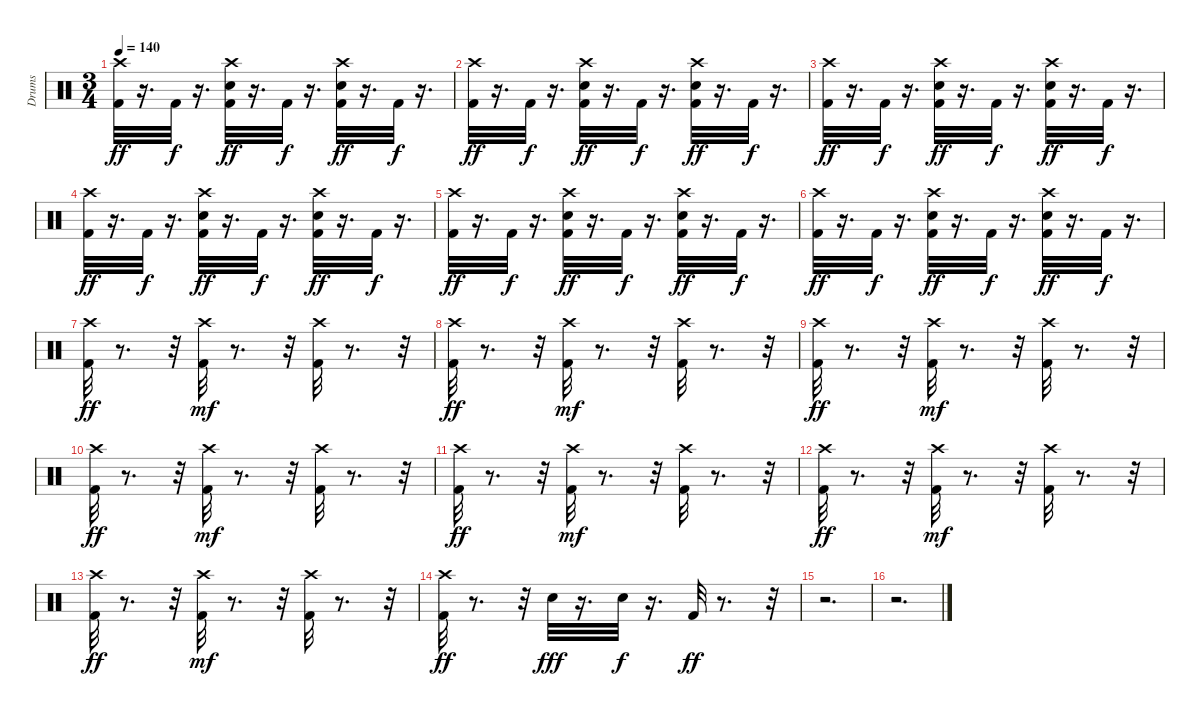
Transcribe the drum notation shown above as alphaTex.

\track ("Drums" "Drums") {instrument percussion}
\staff {score}
\articulation defaults
\ts (3 4)
\tempo 140
\clef neutral
\ks c
("Crash high (hit)" "Kick (hit) 2").32{dy ff} r.16{d} "Kick (hit) 2".32{dy f} r.16{d} ("Snare (hit) 2" "Crash high (hit)" "Kick (hit) 2").32{dy ff} r.16{d} "Kick (hit) 2".32{dy f} r.16{d} ("Snare (hit) 2" "Crash high (hit)" "Kick (hit) 2").32{dy ff} r.16{d} "Kick (hit) 2".32{dy f} r.16{d} |
("Crash high (hit)" "Kick (hit) 2").32{dy ff} r.16{d} "Kick (hit) 2".32{dy f} r.16{d} ("Snare (hit) 2" "Crash high (hit)" "Kick (hit) 2").32{dy ff} r.16{d} "Kick (hit) 2".32{dy f} r.16{d} ("Snare (hit) 2" "Crash high (hit)" "Kick (hit) 2").32{dy ff} r.16{d} "Kick (hit) 2".32{dy f} r.16{d} |
("Crash high (hit)" "Kick (hit) 2").32{dy ff} r.16{d} "Kick (hit) 2".32{dy f} r.16{d} ("Snare (hit) 2" "Crash high (hit)" "Kick (hit) 2").32{dy ff} r.16{d} "Kick (hit) 2".32{dy f} r.16{d} ("Snare (hit) 2" "Crash high (hit)" "Kick (hit) 2").32{dy ff} r.16{d} "Kick (hit) 2".32{dy f} r.16{d} |
("Crash high (hit)" "Kick (hit) 2").32{dy ff} r.16{d} "Kick (hit) 2".32{dy f} r.16{d} ("Snare (hit) 2" "Crash high (hit)" "Kick (hit) 2").32{dy ff} r.16{d} "Kick (hit) 2".32{dy f} r.16{d} ("Snare (hit) 2" "Crash high (hit)" "Kick (hit) 2").32{dy ff} r.16{d} "Kick (hit) 2".32{dy f} r.16{d} |
("Crash high (hit)" "Kick (hit) 2").32{dy ff} r.16{d} "Kick (hit) 2".32{dy f} r.16{d} ("Snare (hit) 2" "Crash high (hit)" "Kick (hit) 2").32{dy ff} r.16{d} "Kick (hit) 2".32{dy f} r.16{d} ("Snare (hit) 2" "Crash high (hit)" "Kick (hit) 2").32{dy ff} r.16{d} "Kick (hit) 2".32{dy f} r.16{d} |
("Crash high (hit)" "Kick (hit) 2").32{dy ff} r.16{d} "Kick (hit) 2".32{dy f} r.16{d} ("Snare (hit) 2" "Crash high (hit)" "Kick (hit) 2").32{dy ff} r.16{d} "Kick (hit) 2".32{dy f} r.16{d} ("Snare (hit) 2" "Crash high (hit)" "Kick (hit) 2").32{dy ff} r.16{d} "Kick (hit) 2".32{dy f} r.16{d} |
("Crash high (hit)" "Kick (hit) 2").32{dy ff} r.8{d} r.32 ("Crash high (hit)" "Kick (hit) 2").32{dy mf} r.8{d} r.32 ("Crash high (hit)" "Kick (hit) 2").32 r.8{d} r.32 |
("Crash high (hit)" "Kick (hit) 2").32{dy ff} r.8{d} r.32 ("Crash high (hit)" "Kick (hit) 2").32{dy mf} r.8{d} r.32 ("Crash high (hit)" "Kick (hit) 2").32 r.8{d} r.32 |
("Crash high (hit)" "Kick (hit) 2").32{dy ff} r.8{d} r.32 ("Crash high (hit)" "Kick (hit) 2").32{dy mf} r.8{d} r.32 ("Crash high (hit)" "Kick (hit) 2").32 r.8{d} r.32 |
("Crash high (hit)" "Kick (hit) 2").32{dy ff} r.8{d} r.32 ("Crash high (hit)" "Kick (hit) 2").32{dy mf} r.8{d} r.32 ("Crash high (hit)" "Kick (hit) 2").32 r.8{d} r.32 |
("Crash high (hit)" "Kick (hit) 2").32{dy ff} r.8{d} r.32 ("Crash high (hit)" "Kick (hit) 2").32{dy mf} r.8{d} r.32 ("Crash high (hit)" "Kick (hit) 2").32 r.8{d} r.32 |
("Crash high (hit)" "Kick (hit) 2").32{dy ff} r.8{d} r.32 ("Crash high (hit)" "Kick (hit) 2").32{dy mf} r.8{d} r.32 ("Crash high (hit)" "Kick (hit) 2").32 r.8{d} r.32 |
("Crash high (hit)" "Kick (hit) 2").32{dy ff} r.8{d} r.32 ("Crash high (hit)" "Kick (hit) 2").32{dy mf} r.8{d} r.32 ("Crash high (hit)" "Kick (hit) 2").32 r.8{d} r.32 |
("Crash high (hit)" "Kick (hit) 2").32{dy ff} r.8{d} r.32 "Snare (hit) 2".32{dy fff} r.16{d} "Snare (hit) 2".32{dy f} r.16{d} "Kick (hit) 2".32{dy ff} r.8{d} r.32 |
r.2{d} |
r.2{d}
